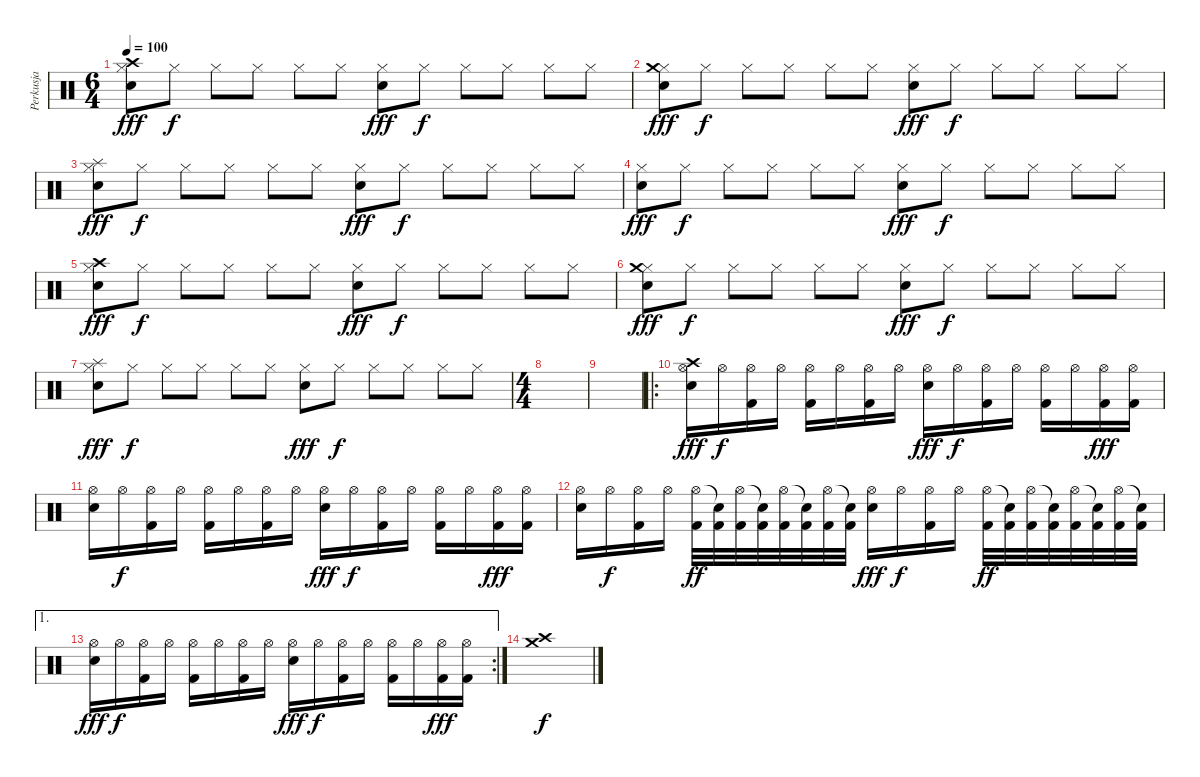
\track ("Perkusja" "Perkusja") {instrument percussion}
\staff {score}
\articulation defaults
\ts (6 4)
\tempo 100
\clef neutral
\ks c
("Hi-Hat (closed)" "Snare (hit) 2" "Crash high (hit)").8{dy fff} "Hi-Hat (closed)".8{dy f} "Hi-Hat (closed)".8 "Hi-Hat (closed)".8 "Hi-Hat (closed)".8 "Hi-Hat (closed)".8 ("Hi-Hat (closed)" "Snare (hit) 2").8{dy fff} "Hi-Hat (closed)".8{dy f} "Hi-Hat (closed)".8 "Hi-Hat (closed)".8 "Hi-Hat (closed)".8 "Hi-Hat (closed)".8 |
("Hi-Hat (closed)" "Snare (hit) 2" "Crash medium (hit)").8{dy fff} "Hi-Hat (closed)".8{dy f} "Hi-Hat (closed)".8 "Hi-Hat (closed)".8 "Hi-Hat (closed)".8 "Hi-Hat (closed)".8 ("Hi-Hat (closed)" "Snare (hit) 2").8{dy fff} "Hi-Hat (closed)".8{dy f} "Hi-Hat (closed)".8 "Hi-Hat (closed)".8 "Hi-Hat (closed)".8 "Hi-Hat (closed)".8 |
("Hi-Hat (closed)" "Snare (hit) 2" "Splash (hit)").8{dy fff} "Hi-Hat (closed)".8{dy f} "Hi-Hat (closed)".8 "Hi-Hat (closed)".8 "Hi-Hat (closed)".8 "Hi-Hat (closed)".8 ("Hi-Hat (closed)" "Snare (hit) 2").8{dy fff} "Hi-Hat (closed)".8{dy f} "Hi-Hat (closed)".8 "Hi-Hat (closed)".8 "Hi-Hat (closed)".8 "Hi-Hat (closed)".8 |
("Hi-Hat (closed)" "Snare (hit) 2").8{dy fff} "Hi-Hat (closed)".8{dy f} "Hi-Hat (closed)".8 "Hi-Hat (closed)".8 "Hi-Hat (closed)".8 "Hi-Hat (closed)".8 ("Hi-Hat (closed)" "Snare (hit) 2").8{dy fff} "Hi-Hat (closed)".8{dy f} "Hi-Hat (closed)".8 "Hi-Hat (closed)".8 "Hi-Hat (closed)".8 "Hi-Hat (closed)".8 |
("Hi-Hat (closed)" "Snare (hit) 2" "Crash high (hit)").8{dy fff} "Hi-Hat (closed)".8{dy f} "Hi-Hat (closed)".8 "Hi-Hat (closed)".8 "Hi-Hat (closed)".8 "Hi-Hat (closed)".8 ("Hi-Hat (closed)" "Snare (hit) 2").8{dy fff} "Hi-Hat (closed)".8{dy f} "Hi-Hat (closed)".8 "Hi-Hat (closed)".8 "Hi-Hat (closed)".8 "Hi-Hat (closed)".8 |
("Hi-Hat (closed)" "Snare (hit) 2" "Crash medium (hit)").8{dy fff} "Hi-Hat (closed)".8{dy f} "Hi-Hat (closed)".8 "Hi-Hat (closed)".8 "Hi-Hat (closed)".8 "Hi-Hat (closed)".8 ("Hi-Hat (closed)" "Snare (hit) 2").8{dy fff} "Hi-Hat (closed)".8{dy f} "Hi-Hat (closed)".8 "Hi-Hat (closed)".8 "Hi-Hat (closed)".8 "Hi-Hat (closed)".8 |
("Hi-Hat (closed)" "Snare (hit) 2" "Splash (hit)").8{dy fff} "Hi-Hat (closed)".8{dy f} "Hi-Hat (closed)".8 "Hi-Hat (closed)".8 "Hi-Hat (closed)".8 "Hi-Hat (closed)".8 ("Hi-Hat (closed)" "Snare (hit) 2").8{dy fff} "Hi-Hat (closed)".8{dy f} "Hi-Hat (closed)".8 "Hi-Hat (closed)".8 "Hi-Hat (closed)".8 "Hi-Hat (closed)".8 |
\ts (4 4)
|
|
\ro
("Hi-Hat (open)" "Snare (hit) 2" "Crash high (hit)").16{dy fff} "Hi-Hat (open)".16{dy f} ("Hi-Hat (open)" "Kick (hit) 2").16 "Hi-Hat (open)".16 ("Hi-Hat (open)" "Kick (hit) 2").16 "Hi-Hat (open)".16 ("Hi-Hat (open)" "Kick (hit) 2").16 "Hi-Hat (open)".16 ("Hi-Hat (open)" "Snare (hit) 2").16{dy fff} "Hi-Hat (open)".16{dy f} ("Hi-Hat (open)" "Kick (hit) 2").16 "Hi-Hat (open)".16 ("Hi-Hat (open)" "Kick (hit) 2").16 "Hi-Hat (open)".16 ("Hi-Hat (open)" "Kick (hit) 2").16{dy fff} ("Hi-Hat (open)" "Kick (hit) 2").16 |
("Hi-Hat (open)" "Snare (hit) 2").16 "Hi-Hat (open)".16{dy f} ("Hi-Hat (open)" "Kick (hit) 2").16 "Hi-Hat (open)".16 ("Hi-Hat (open)" "Kick (hit) 2").16 "Hi-Hat (open)".16 ("Hi-Hat (open)" "Kick (hit) 2").16 "Hi-Hat (open)".16 ("Hi-Hat (open)" "Snare (hit) 2").16{dy fff} "Hi-Hat (open)".16{dy f} ("Hi-Hat (open)" "Kick (hit) 2").16 "Hi-Hat (open)".16 ("Hi-Hat (open)" "Kick (hit) 2").16 "Hi-Hat (open)".16 ("Hi-Hat (open)" "Kick (hit) 2").16{dy fff} ("Hi-Hat (open)" "Kick (hit) 2").16 |
("Hi-Hat (open)" "Snare (hit) 2").16 "Hi-Hat (open)".16{dy f} ("Hi-Hat (open)" "Kick (hit) 2").16 "Hi-Hat (open)".16 ("Hi-Hat (open)" "Kick (hit) 2").32{dy ff} ("Snare (hit)"{t} "Kick (hit) 2").32 ("Hi-Hat (open)" "Kick (hit) 2").32 ("Snare (hit)"{t} "Kick (hit) 2").32 ("Hi-Hat (open)" "Kick (hit) 2").32 ("Snare (hit)"{t} "Kick (hit) 2").32 ("Hi-Hat (open)" "Kick (hit) 2").32 ("Snare (hit)"{t} "Kick (hit) 2").32 ("Hi-Hat (open)" "Snare (hit) 2").16{dy fff} "Hi-Hat (open)".16{dy f} ("Hi-Hat (open)" "Kick (hit) 2").16 "Hi-Hat (open)".16 ("Hi-Hat (open)" "Kick (hit) 2").32{dy ff} ("Snare (hit)"{t} "Kick (hit) 2").32 ("Hi-Hat (open)" "Kick (hit) 2").32 ("Snare (hit)"{t} "Kick (hit) 2").32 ("Hi-Hat (open)" "Kick (hit) 2").32 ("Snare (hit)"{t} "Kick (hit) 2").32 ("Hi-Hat (open)" "Kick (hit) 2").32 ("Snare (hit)"{t} "Kick (hit) 2").32 |
\ae 1
\rc 2
("Hi-Hat (open)" "Snare (hit) 2").16{dy fff} "Hi-Hat (open)".16{dy f} ("Hi-Hat (open)" "Kick (hit) 2").16 "Hi-Hat (open)".16 ("Hi-Hat (open)" "Kick (hit) 2").16 "Hi-Hat (open)".16 ("Hi-Hat (open)" "Kick (hit) 2").16 "Hi-Hat (open)".16 ("Hi-Hat (open)" "Snare (hit) 2").16{dy fff} "Hi-Hat (open)".16{dy f} ("Hi-Hat (open)" "Kick (hit) 2").16 "Hi-Hat (open)".16 ("Hi-Hat (open)" "Kick (hit) 2").16 "Hi-Hat (open)".16 ("Hi-Hat (open)" "Kick (hit) 2").16{dy fff} ("Hi-Hat (open)" "Kick (hit) 2").16 |
("Crash high (hit)" "Crash medium (hit)").1{dy f}
